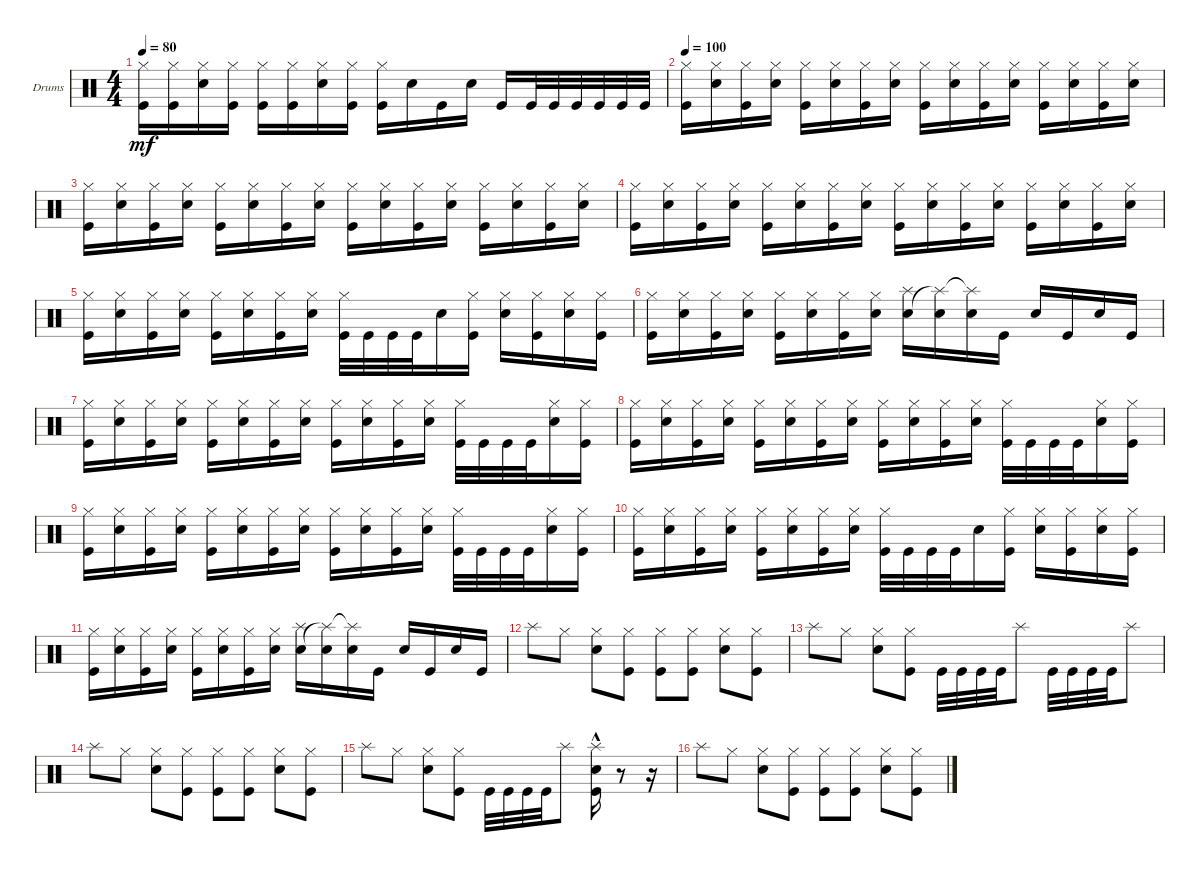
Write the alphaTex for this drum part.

\defaultSystemsLayout 4
\bracketExtendMode groupsimilarinstruments
\firstSystemTrackNameOrientation horizontal
\otherSystemsTrackNameOrientation horizontal
\track ("Drumkit" "Drums") {instrument percussion}
\staff {score}
\articulation defaults
\ts (4 4)
\tempo 80
\clef neutral
\ks c
("Kick (hit)" "Hi-Hat (closed)").16{dy mf} ("Kick (hit)" "Hi-Hat (closed)").16 ("Snare (hit) 2" "Hi-Hat (closed)").16 ("Kick (hit)" "Hi-Hat (closed)").16 ("Kick (hit)" "Hi-Hat (closed)").16 ("Kick (hit)" "Hi-Hat (closed)").16 ("Snare (hit) 2" "Hi-Hat (closed)").16 ("Kick (hit)" "Hi-Hat (closed)").16 ("Kick (hit)" "Hi-Hat (closed)").16 "Snare (hit) 2".16 "Kick (hit)".16 "Snare (hit) 2".16 "Kick (hit)".16 "Kick (hit)".32 "Kick (hit)".32 "Kick (hit)".32 "Kick (hit)".32 "Kick (hit)".32 "Kick (hit)".32 |
\tempo 100
("Kick (hit)" "Hi-Hat (closed)").16 ("Snare (hit) 2" "Hi-Hat (closed)").16 ("Kick (hit)" "Hi-Hat (closed)").16 ("Snare (hit) 2" "Hi-Hat (closed)").16 ("Kick (hit)" "Hi-Hat (closed)").16 ("Snare (hit) 2" "Hi-Hat (closed)").16 ("Kick (hit)" "Hi-Hat (closed)").16 ("Snare (hit) 2" "Hi-Hat (closed)").16 ("Kick (hit)" "Hi-Hat (closed)").16 ("Snare (hit) 2" "Hi-Hat (closed)").16 ("Kick (hit)" "Hi-Hat (closed)").16 ("Snare (hit) 2" "Hi-Hat (closed)").16 ("Kick (hit)" "Hi-Hat (closed)").16 ("Snare (hit) 2" "Hi-Hat (closed)").16 ("Kick (hit)" "Hi-Hat (closed)").16 ("Snare (hit) 2" "Hi-Hat (closed)").16 |
("Kick (hit)" "Hi-Hat (closed)").16 ("Snare (hit) 2" "Hi-Hat (closed)").16 ("Kick (hit)" "Hi-Hat (closed)").16 ("Snare (hit) 2" "Hi-Hat (closed)").16 ("Kick (hit)" "Hi-Hat (closed)").16 ("Snare (hit) 2" "Hi-Hat (closed)").16 ("Kick (hit)" "Hi-Hat (closed)").16 ("Snare (hit) 2" "Hi-Hat (closed)").16 ("Kick (hit)" "Hi-Hat (closed)").16 ("Snare (hit) 2" "Hi-Hat (closed)").16 ("Kick (hit)" "Hi-Hat (closed)").16 ("Snare (hit) 2" "Hi-Hat (closed)").16 ("Kick (hit)" "Hi-Hat (closed)").16 ("Snare (hit) 2" "Hi-Hat (closed)").16 ("Kick (hit)" "Hi-Hat (closed)").16 ("Snare (hit) 2" "Hi-Hat (closed)").16 |
("Kick (hit)" "Hi-Hat (closed)").16 ("Snare (hit) 2" "Hi-Hat (closed)").16 ("Kick (hit)" "Hi-Hat (closed)").16 ("Snare (hit) 2" "Hi-Hat (closed)").16 ("Kick (hit)" "Hi-Hat (closed)").16 ("Snare (hit) 2" "Hi-Hat (closed)").16 ("Kick (hit)" "Hi-Hat (closed)").16 ("Snare (hit) 2" "Hi-Hat (closed)").16 ("Kick (hit)" "Hi-Hat (closed)").16 ("Snare (hit) 2" "Hi-Hat (closed)").16 ("Kick (hit)" "Hi-Hat (closed)").16 ("Snare (hit) 2" "Hi-Hat (closed)").16 ("Kick (hit)" "Hi-Hat (closed)").16 ("Snare (hit) 2" "Hi-Hat (closed)").16 ("Kick (hit)" "Hi-Hat (closed)").16 ("Snare (hit) 2" "Hi-Hat (closed)").16 |
("Kick (hit)" "Hi-Hat (closed)").16 ("Snare (hit) 2" "Hi-Hat (closed)").16 ("Kick (hit)" "Hi-Hat (closed)").16 ("Snare (hit) 2" "Hi-Hat (closed)").16 ("Kick (hit)" "Hi-Hat (closed)").16 ("Snare (hit) 2" "Hi-Hat (closed)").16 ("Kick (hit)" "Hi-Hat (closed)").16 ("Snare (hit) 2" "Hi-Hat (closed)").16 ("Kick (hit)" "Hi-Hat (closed)").32 "Kick (hit)".32 "Kick (hit)".32 "Kick (hit)".32 "Snare (hit) 2".16 ("Kick (hit)" "Hi-Hat (closed)").16 ("Snare (hit) 2" "Hi-Hat (closed)").16 ("Kick (hit)" "Hi-Hat (closed)").16 ("Snare (hit) 2" "Hi-Hat (closed)").16 ("Kick (hit)" "Hi-Hat (closed)").16 |
("Kick (hit)" "Hi-Hat (closed)").16 ("Snare (hit) 2" "Hi-Hat (closed)").16 ("Kick (hit)" "Hi-Hat (closed)").16 ("Snare (hit) 2" "Hi-Hat (closed)").16 ("Kick (hit)" "Hi-Hat (closed)").16 ("Snare (hit) 2" "Hi-Hat (closed)").16 ("Kick (hit)" "Hi-Hat (closed)").16 ("Snare (hit) 2" "Hi-Hat (closed)").16 ("Splash (hit)" "Snare (hit) 2").16 ("Snare (hit) 2" "Splash (hit)"{t}).16 ("Snare (hit) 2" "Splash (hit)"{t}).16 "Kick (hit)".16 "Snare (hit) 2".16 "Kick (hit)".16 "Snare (hit) 2".16 "Kick (hit)".16 |
("Kick (hit)" "Hi-Hat (closed)").16 ("Snare (hit) 2" "Hi-Hat (closed)").16 ("Kick (hit)" "Hi-Hat (closed)").16 ("Snare (hit) 2" "Hi-Hat (closed)").16 ("Kick (hit)" "Hi-Hat (closed)").16 ("Snare (hit) 2" "Hi-Hat (closed)").16 ("Kick (hit)" "Hi-Hat (closed)").16 ("Snare (hit) 2" "Hi-Hat (closed)").16 ("Kick (hit)" "Hi-Hat (closed)").16 ("Snare (hit) 2" "Hi-Hat (closed)").16 ("Kick (hit)" "Hi-Hat (closed)").16 ("Snare (hit) 2" "Hi-Hat (closed)").16 ("Kick (hit)" "Hi-Hat (closed)").32 "Kick (hit)".32 "Kick (hit)".32 "Kick (hit)".32 ("Hi-Hat (closed)" "Snare (hit) 2").16 ("Hi-Hat (closed)" "Kick (hit)").16 |
("Kick (hit)" "Hi-Hat (closed)").16 ("Snare (hit) 2" "Hi-Hat (closed)").16 ("Kick (hit)" "Hi-Hat (closed)").16 ("Snare (hit) 2" "Hi-Hat (closed)").16 ("Kick (hit)" "Hi-Hat (closed)").16 ("Snare (hit) 2" "Hi-Hat (closed)").16 ("Kick (hit)" "Hi-Hat (closed)").16 ("Snare (hit) 2" "Hi-Hat (closed)").16 ("Kick (hit)" "Hi-Hat (closed)").16 ("Snare (hit) 2" "Hi-Hat (closed)").16 ("Kick (hit)" "Hi-Hat (closed)").16 ("Snare (hit) 2" "Hi-Hat (closed)").16 ("Kick (hit)" "Hi-Hat (closed)").32 "Kick (hit)".32 "Kick (hit)".32 "Kick (hit)".32 ("Hi-Hat (closed)" "Snare (hit) 2").16 ("Hi-Hat (closed)" "Kick (hit)").16 |
("Kick (hit)" "Hi-Hat (closed)").16 ("Snare (hit) 2" "Hi-Hat (closed)").16 ("Kick (hit)" "Hi-Hat (closed)").16 ("Snare (hit) 2" "Hi-Hat (closed)").16 ("Kick (hit)" "Hi-Hat (closed)").16 ("Snare (hit) 2" "Hi-Hat (closed)").16 ("Kick (hit)" "Hi-Hat (closed)").16 ("Snare (hit) 2" "Hi-Hat (closed)").16 ("Kick (hit)" "Hi-Hat (closed)").16 ("Snare (hit) 2" "Hi-Hat (closed)").16 ("Kick (hit)" "Hi-Hat (closed)").16 ("Snare (hit) 2" "Hi-Hat (closed)").16 ("Kick (hit)" "Hi-Hat (closed)").32 "Kick (hit)".32 "Kick (hit)".32 "Kick (hit)".32 ("Hi-Hat (closed)" "Snare (hit) 2").16 ("Hi-Hat (closed)" "Kick (hit)").16 |
("Kick (hit)" "Hi-Hat (closed)").16 ("Snare (hit) 2" "Hi-Hat (closed)").16 ("Kick (hit)" "Hi-Hat (closed)").16 ("Snare (hit) 2" "Hi-Hat (closed)").16 ("Kick (hit)" "Hi-Hat (closed)").16 ("Snare (hit) 2" "Hi-Hat (closed)").16 ("Kick (hit)" "Hi-Hat (closed)").16 ("Snare (hit) 2" "Hi-Hat (closed)").16 ("Kick (hit)" "Hi-Hat (closed)").32 "Kick (hit)".32 "Kick (hit)".32 "Kick (hit)".32 "Snare (hit) 2".16 ("Kick (hit)" "Hi-Hat (closed)").16 ("Snare (hit) 2" "Hi-Hat (closed)").16 ("Kick (hit)" "Hi-Hat (closed)").16 ("Snare (hit) 2" "Hi-Hat (closed)").16 ("Kick (hit)" "Hi-Hat (closed)").16 |
("Kick (hit)" "Hi-Hat (closed)").16 ("Snare (hit) 2" "Hi-Hat (closed)").16 ("Kick (hit)" "Hi-Hat (closed)").16 ("Snare (hit) 2" "Hi-Hat (closed)").16 ("Kick (hit)" "Hi-Hat (closed)").16 ("Snare (hit) 2" "Hi-Hat (closed)").16 ("Kick (hit)" "Hi-Hat (closed)").16 ("Snare (hit) 2" "Hi-Hat (closed)").16 ("Splash (hit)" "Snare (hit) 2").16 ("Snare (hit) 2" "Splash (hit)"{t}).16 ("Snare (hit) 2" "Splash (hit)"{t}).16 "Kick (hit)".16 "Snare (hit) 2".16 "Kick (hit)".16 "Snare (hit) 2".16 "Kick (hit)".16 |
"Splash (hit)".8 "Hi-Hat (closed)".8 ("Snare (hit) 2" "Hi-Hat (closed)").8 ("Kick (hit)" "Hi-Hat (closed)").8 ("Kick (hit)" "Hi-Hat (closed)").8 ("Kick (hit)" "Hi-Hat (closed)").8 ("Snare (hit) 2" "Hi-Hat (closed)").8 ("Kick (hit)" "Hi-Hat (closed)").8 |
"Splash (hit)".8 "Hi-Hat (closed)".8 ("Snare (hit) 2" "Hi-Hat (closed)").8 ("Kick (hit)" "Hi-Hat (closed)").8 "Kick (hit)".32 "Kick (hit)".32 "Kick (hit)".32 "Kick (hit)".32 "Splash (hit)".8 "Kick (hit)".32 "Kick (hit)".32 "Kick (hit)".32 "Kick (hit)".32 "Splash (hit)".8 |
"Splash (hit)".8 "Hi-Hat (closed)".8 ("Snare (hit) 2" "Hi-Hat (closed)").8 ("Kick (hit)" "Hi-Hat (closed)").8 ("Kick (hit)" "Hi-Hat (closed)").8 ("Kick (hit)" "Hi-Hat (closed)").8 ("Snare (hit) 2" "Hi-Hat (closed)").8 ("Kick (hit)" "Hi-Hat (closed)").8 |
"Splash (hit)".8 "Hi-Hat (closed)".8 ("Snare (hit) 2" "Hi-Hat (closed)").8 ("Kick (hit)" "Hi-Hat (closed)").8 "Kick (hit)".32 "Kick (hit)".32 "Kick (hit)".32 "Kick (hit)".32 "Splash (hit)".8 ("Splash (hit)"{hac} "Snare (hit) 2"{hac} "Kick (hit)"{hac}).16 r.8 r.16 |
"Splash (hit)".8 "Hi-Hat (closed)".8 ("Snare (hit) 2" "Hi-Hat (closed)").8 ("Kick (hit)" "Hi-Hat (closed)").8 ("Kick (hit)" "Hi-Hat (closed)").8 ("Kick (hit)" "Hi-Hat (closed)").8 ("Snare (hit) 2" "Hi-Hat (closed)").8 ("Kick (hit)" "Hi-Hat (closed)").8
